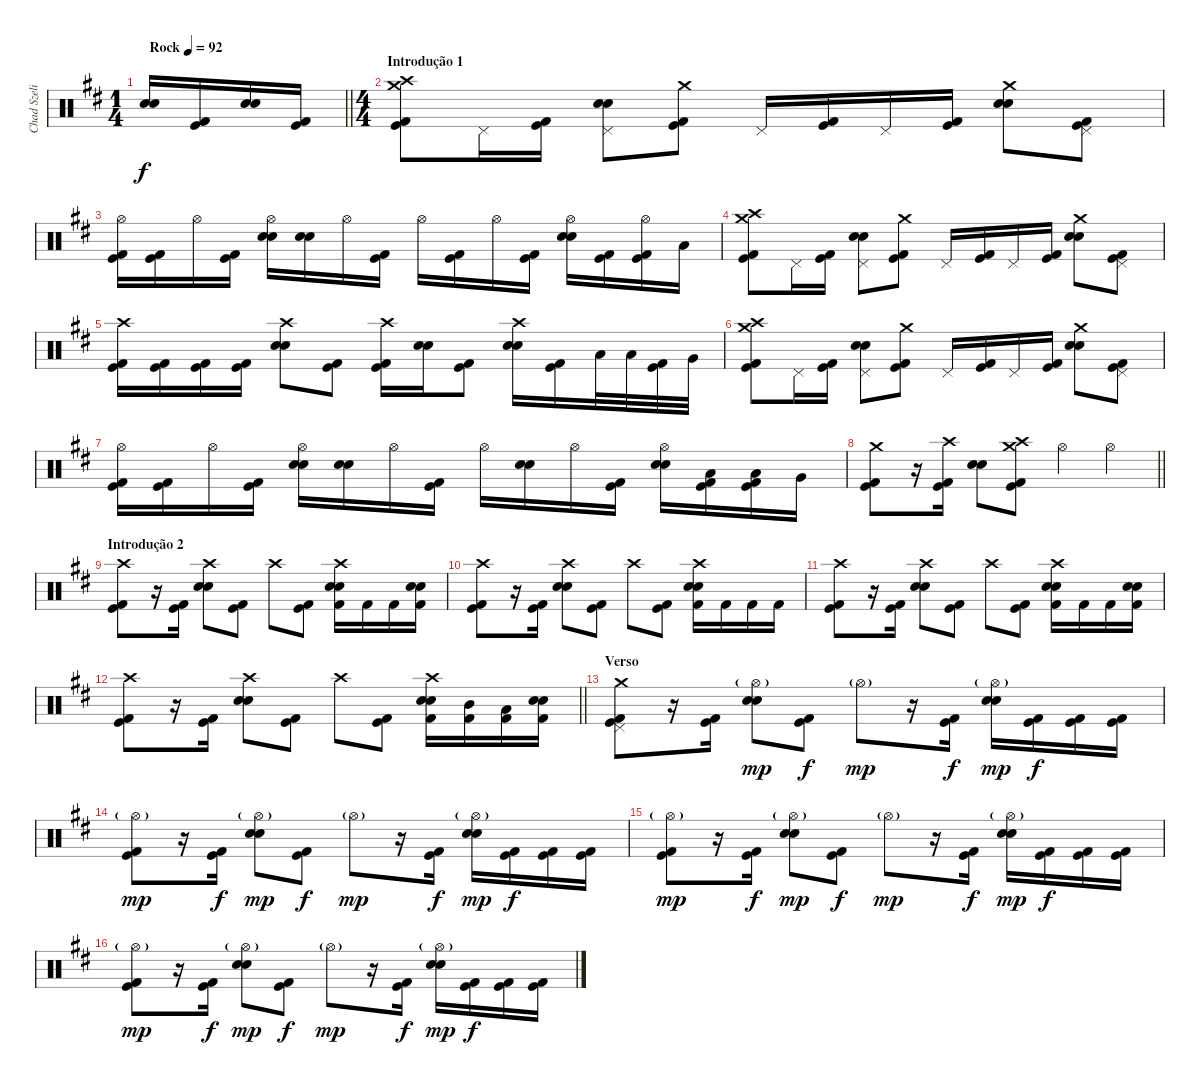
\track ("Chad Szeliga" "Chad Szeli") {instrument percussion}
\staff {score}
\articulation defaults
\ts (1 4)
\tempo (92 "Rock")
\clef neutral
\barLineRight lightlight
\ks d
("Snare (hit) 2" "Snare (hit) 2").16{dy f} ("Kick (hit) 2" "Kick (hit)").16 ("Snare (hit) 2" "Snare (hit) 2").16 ("Kick (hit) 2" "Kick (hit)").16 |
\ts (4 4)
\section ("" "Introdução 1")
("Crash high (hit)" "Kick (hit) 2" "Kick (hit)" "Crash medium (hit)").8 "Pedal Hi-Hat (hit)".16 ("Kick (hit) 2" "Kick (hit)").16 ("Snare (hit) 2" "Snare (hit) 2" "Pedal Hi-Hat (hit)").8 ("Crash medium (hit)" "Kick (hit)" "Kick (hit) 2").8 "Pedal Hi-Hat (hit)".16 ("Kick (hit) 2" "Kick (hit)").16 "Pedal Hi-Hat (hit)".16 ("Kick (hit) 2" "Kick (hit)").16 ("Crash medium (hit)" "Snare (hit) 2" "Snare (hit) 2").8 ("Kick (hit) 2" "Kick (hit)" "Pedal Hi-Hat (hit)").8 |
("Kick (hit) 2" "Kick (hit)" "Hi-Hat (open)").16 ("Kick (hit) 2" "Kick (hit)").16 "Hi-Hat (open)".16 ("Kick (hit) 2" "Kick (hit)").16 ("Snare (hit) 2" "Snare (hit) 2" "Hi-Hat (open)").16 ("Snare (hit) 2" "Snare (hit) 2").16 "Hi-Hat (open)".16 ("Kick (hit) 2" "Kick (hit)").16 "Hi-Hat (open)".16 ("Kick (hit) 2" "Kick (hit)").16 "Hi-Hat (open)".16 ("Kick (hit) 2" "Kick (hit)").16 ("Snare (hit) 2" "Snare (hit) 2" "Hi-Hat (open)").16 ("Kick (hit) 2" "Kick (hit)").16 ("Kick (hit) 2" "Kick (hit)" "Hi-Hat (open)").16 "Low Tom (hit)".16 |
("Crash high (hit)" "Kick (hit) 2" "Kick (hit)" "Crash medium (hit)").8 "Pedal Hi-Hat (hit)".16 ("Kick (hit) 2" "Kick (hit)").16 ("Snare (hit) 2" "Snare (hit) 2" "Pedal Hi-Hat (hit)").8 ("Crash medium (hit)" "Kick (hit)" "Kick (hit) 2").8 "Pedal Hi-Hat (hit)".16 ("Kick (hit) 2" "Kick (hit)").16 "Pedal Hi-Hat (hit)".16 ("Kick (hit) 2" "Kick (hit)").16 ("Crash medium (hit)" "Snare (hit) 2" "Snare (hit) 2").8 ("Kick (hit) 2" "Kick (hit)" "Pedal Hi-Hat (hit)").8 |
("Crash high (hit)" "Kick (hit) 2" "Kick (hit)").16 ("Kick (hit) 2" "Kick (hit)").16 ("Kick (hit) 2" "Kick (hit)").16 ("Kick (hit) 2" "Kick (hit)").16 ("Crash high (hit)" "Snare (hit) 2" "Snare (hit) 2").8 ("Kick (hit) 2" "Kick (hit)").8 ("Crash high (hit)" "Kick (hit) 2" "Kick (hit)").16 ("Snare (hit) 2" "Snare (hit) 2").16 ("Kick (hit) 2" "Kick (hit)").8 ("Crash high (hit)" "Snare (hit) 2" "Snare (hit) 2").16 ("Kick (hit) 2" "Kick (hit)").16 "Low Tom (hit)".32 "Low Tom (hit)".32 ("Kick (hit) 2" "Kick (hit)").32 "Very Low Tom (hit)".32 |
("Crash high (hit)" "Kick (hit) 2" "Kick (hit)" "Crash medium (hit)").8 "Pedal Hi-Hat (hit)".16 ("Kick (hit) 2" "Kick (hit)").16 ("Snare (hit) 2" "Snare (hit) 2" "Pedal Hi-Hat (hit)").8 ("Crash medium (hit)" "Kick (hit)" "Kick (hit) 2").8 "Pedal Hi-Hat (hit)".16 ("Kick (hit) 2" "Kick (hit)").16 "Pedal Hi-Hat (hit)".16 ("Kick (hit) 2" "Kick (hit)").16 ("Crash medium (hit)" "Snare (hit) 2" "Snare (hit) 2").8 ("Kick (hit) 2" "Kick (hit)" "Pedal Hi-Hat (hit)").8 |
("Kick (hit) 2" "Kick (hit)" "Hi-Hat (open)").16 ("Kick (hit) 2" "Kick (hit)").16 "Hi-Hat (open)".16 ("Kick (hit) 2" "Kick (hit)").16 ("Snare (hit) 2" "Snare (hit) 2" "Hi-Hat (open)").16 ("Snare (hit) 2" "Snare (hit) 2").16 "Hi-Hat (open)".16 ("Kick (hit) 2" "Kick (hit)").16 "Hi-Hat (open)".16 ("Snare (hit) 2" "Snare (hit) 2").16 "Hi-Hat (open)".16 ("Kick (hit) 2" "Kick (hit)").16 ("Snare (hit) 2" "Snare (hit) 2" "Hi-Hat (open)").16 ("Kick (hit) 2" "Kick (hit)" "Low Tom (hit)").16 ("Kick (hit) 2" "Kick (hit)" "Low Tom (hit)").16 "Very Low Tom (hit)".16 |
\barLineRight lightlight
("Crash medium (hit)" "Kick (hit) 2" "Kick (hit)").8 r.16 ("Crash high (hit)" "Kick (hit) 2" "Kick (hit)").16 ("Snare (hit) 2" "Snare (hit) 2").8 ("Crash high (hit)" "Kick (hit) 2" "Kick (hit)" "Crash medium (hit)").8 "Hi-Hat (open)".4 "Hi-Hat (open)".4 |
\section ("" "Introdução 2")
("Crash high (hit)" "Kick (hit) 2" "Kick (hit)").8 r.16 ("Kick (hit) 2" "Kick (hit)").16{beam Down} ("Crash high (hit)" "Snare (hit) 2" "Snare (hit) 2").8 ("Kick (hit) 2" "Kick (hit)").8 "Crash high (hit)".8 ("Kick (hit) 2" "Kick (hit)").8 ("Crash high (hit)" "Kick (hit) 2" "Snare (hit) 2" "Snare (hit) 2").16 "Kick (hit) 2".16 "Kick (hit) 2".16 ("Kick (hit) 2" "Snare (hit) 2" "Snare (hit) 2").16 |
("Crash high (hit)" "Kick (hit) 2" "Kick (hit)").8 r.16 ("Kick (hit) 2" "Kick (hit)").16{beam Down} ("Crash high (hit)" "Snare (hit) 2" "Snare (hit) 2").8 ("Kick (hit) 2" "Kick (hit)").8 "Crash high (hit)".8 ("Kick (hit) 2" "Kick (hit)").8 ("Crash high (hit)" "Kick (hit) 2" "Snare (hit) 2" "Snare (hit) 2").16 "Kick (hit) 2".16 "Kick (hit) 2".16 "Kick (hit) 2".16 |
("Crash high (hit)" "Kick (hit) 2" "Kick (hit)").8 r.16 ("Kick (hit) 2" "Kick (hit)").16{beam Down} ("Crash high (hit)" "Snare (hit) 2" "Snare (hit) 2").8 ("Kick (hit) 2" "Kick (hit)").8 "Crash high (hit)".8 ("Kick (hit) 2" "Kick (hit)").8 ("Crash high (hit)" "Kick (hit) 2" "Snare (hit) 2" "Snare (hit) 2").16 "Kick (hit) 2".16 "Kick (hit) 2".16 ("Kick (hit) 2" "Snare (hit) 2" "Snare (hit) 2").16 |
\barLineRight lightlight
("Crash high (hit)" "Kick (hit) 2" "Kick (hit)").8 r.16 ("Kick (hit) 2" "Kick (hit)").16{beam Down} ("Crash high (hit)" "Snare (hit) 2" "Snare (hit) 2").8 ("Kick (hit) 2" "Kick (hit)").8 "Crash high (hit)".8 ("Kick (hit) 2" "Kick (hit)").8 ("Crash high (hit)" "Kick (hit) 2" "Snare (hit) 2" "Snare (hit) 2").16 ("Kick (hit) 2" "Mid Tom (hit)").16 ("Kick (hit) 2" "Low Tom (hit)").16 ("Kick (hit) 2" "Snare (hit) 2" "Snare (hit) 2").16 |
\section ("" "Verso")
("Crash medium (hit)" "Kick (hit) 2" "Kick (hit)" "Pedal Hi-Hat (hit)").8 r.16 ("Kick (hit) 2" "Kick (hit)").16{beam Down} ("Snare (hit) 2" "Snare (hit) 2" "Hi-Hat (open)"{g}).8{dy mp} ("Kick (hit) 2" "Kick (hit)").8{dy f} "Hi-Hat (open)"{g}.8{dy mp} r.16 ("Kick (hit) 2" "Kick (hit)").16{dy f beam Down} ("Snare (hit) 2" "Snare (hit) 2" "Hi-Hat (open)"{g}).16{dy mp} ("Kick (hit) 2" "Kick (hit)").16{dy f} ("Kick (hit) 2" "Kick (hit)").16 ("Kick (hit) 2" "Kick (hit)").16 |
("Kick (hit) 2" "Kick (hit)" "Hi-Hat (open)"{g}).8{dy mp} r.16 ("Kick (hit) 2" "Kick (hit)").16{dy f beam Down} ("Snare (hit) 2" "Snare (hit) 2" "Hi-Hat (open)"{g}).8{dy mp} ("Kick (hit) 2" "Kick (hit)").8{dy f} "Hi-Hat (open)"{g}.8{dy mp} r.16 ("Kick (hit) 2" "Kick (hit)").16{dy f beam Down} ("Snare (hit) 2" "Snare (hit) 2" "Hi-Hat (open)"{g}).16{dy mp} ("Kick (hit) 2" "Kick (hit)").16{dy f} ("Kick (hit) 2" "Kick (hit)").16 ("Kick (hit) 2" "Kick (hit)").16 |
("Kick (hit) 2" "Kick (hit)" "Hi-Hat (open)"{g}).8{dy mp} r.16 ("Kick (hit) 2" "Kick (hit)").16{dy f beam Down} ("Snare (hit) 2" "Snare (hit) 2" "Hi-Hat (open)"{g}).8{dy mp} ("Kick (hit) 2" "Kick (hit)").8{dy f} "Hi-Hat (open)"{g}.8{dy mp} r.16 ("Kick (hit) 2" "Kick (hit)").16{dy f beam Down} ("Snare (hit) 2" "Snare (hit) 2" "Hi-Hat (open)"{g}).16{dy mp} ("Kick (hit) 2" "Kick (hit)").16{dy f} ("Kick (hit) 2" "Kick (hit)").16 ("Kick (hit) 2" "Kick (hit)").16 |
("Kick (hit) 2" "Kick (hit)" "Hi-Hat (open)"{g}).8{dy mp} r.16 ("Kick (hit) 2" "Kick (hit)").16{dy f beam Down} ("Snare (hit) 2" "Snare (hit) 2" "Hi-Hat (open)"{g}).8{dy mp} ("Kick (hit) 2" "Kick (hit)").8{dy f} "Hi-Hat (open)"{g}.8{dy mp} r.16 ("Kick (hit) 2" "Kick (hit)").16{dy f beam Down} ("Snare (hit) 2" "Snare (hit) 2" "Hi-Hat (open)"{g}).16{dy mp} ("Kick (hit) 2" "Kick (hit)").16{dy f} ("Kick (hit) 2" "Kick (hit)").16 ("Kick (hit) 2" "Kick (hit)").16
